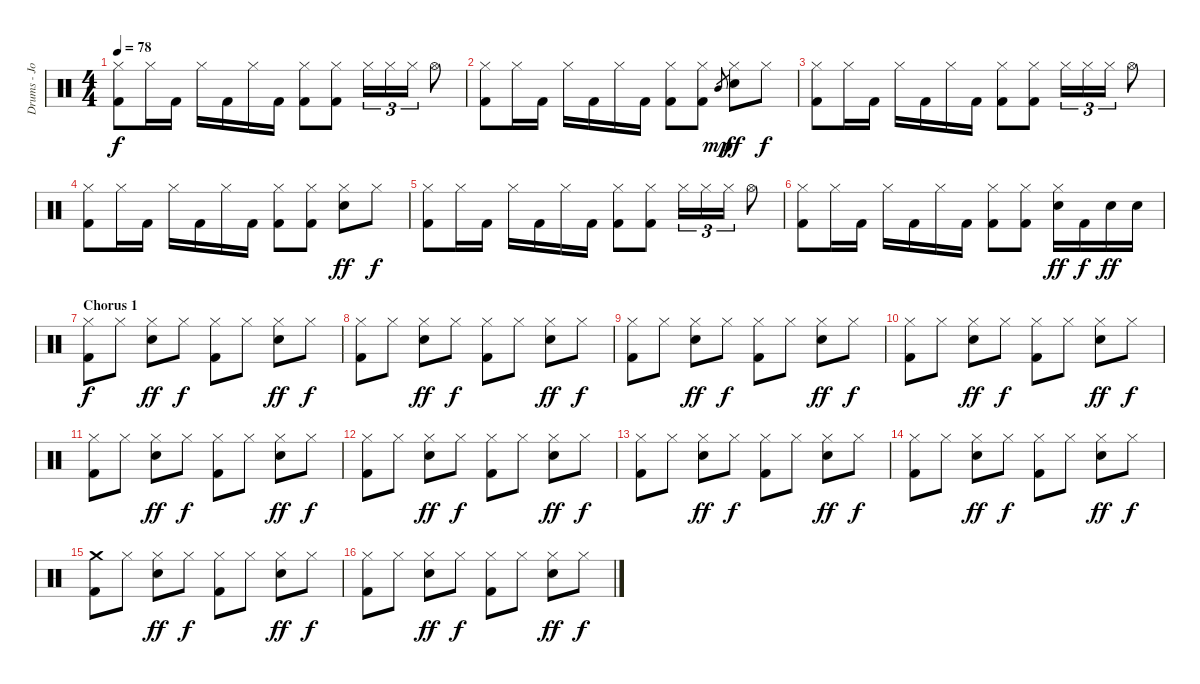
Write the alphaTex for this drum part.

\track ("Drums - Jorg Michael" "Drums - Jo") {instrument percussion}
\staff {score}
\articulation defaults
\ts (4 4)
\tempo 78
\clef neutral
\ks c
("Hi-Hat (closed)" "Kick (hit) 2").8{dy f} "Hi-Hat (closed)".16 "Kick (hit) 2".16 "Hi-Hat (closed)".16 "Kick (hit) 2".16 "Hi-Hat (closed)".16 "Kick (hit) 2".16 ("Hi-Hat (closed)" "Kick (hit) 2").8 ("Hi-Hat (closed)" "Kick (hit) 2").8 "Hi-Hat (closed)".16{tu (3 2)} "Hi-Hat (closed)".16{tu (3 2)} "Hi-Hat (closed)".16{tu (3 2)} "Hi-Hat (open)".8 |
("Hi-Hat (closed)" "Kick (hit) 2").8 "Hi-Hat (closed)".16 "Kick (hit) 2".16 "Hi-Hat (closed)".16 "Kick (hit) 2".16 "Hi-Hat (closed)".16 "Kick (hit) 2".16 ("Hi-Hat (closed)" "Kick (hit) 2").8 ("Hi-Hat (closed)" "Kick (hit) 2").8 "Mid Tom (hit)".8{gr dy mp} ("Hi-Hat (closed)" "Electric Snare (hit)").8{dy ff} "Hi-Hat (closed)".8{dy f} |
("Hi-Hat (closed)" "Kick (hit) 2").8 "Hi-Hat (closed)".16 "Kick (hit) 2".16 "Hi-Hat (closed)".16 "Kick (hit) 2".16 "Hi-Hat (closed)".16 "Kick (hit) 2".16 ("Hi-Hat (closed)" "Kick (hit) 2").8 ("Hi-Hat (closed)" "Kick (hit) 2").8 "Hi-Hat (closed)".16{tu (3 2)} "Hi-Hat (closed)".16{tu (3 2)} "Hi-Hat (closed)".16{tu (3 2)} "Hi-Hat (open)".8 |
("Hi-Hat (closed)" "Kick (hit) 2").8 "Hi-Hat (closed)".16 "Kick (hit) 2".16 "Hi-Hat (closed)".16 "Kick (hit) 2".16 "Hi-Hat (closed)".16 "Kick (hit) 2".16 ("Hi-Hat (closed)" "Kick (hit) 2").8 ("Hi-Hat (closed)" "Kick (hit) 2").8 ("Hi-Hat (closed)" "Electric Snare (hit)").8{dy ff} "Hi-Hat (closed)".8{dy f} |
("Hi-Hat (closed)" "Kick (hit) 2").8 "Hi-Hat (closed)".16 "Kick (hit) 2".16 "Hi-Hat (closed)".16 "Kick (hit) 2".16 "Hi-Hat (closed)".16 "Kick (hit) 2".16 ("Hi-Hat (closed)" "Kick (hit) 2").8 ("Hi-Hat (closed)" "Kick (hit) 2").8 "Hi-Hat (closed)".16{tu (3 2)} "Hi-Hat (closed)".16{tu (3 2)} "Hi-Hat (closed)".16{tu (3 2)} "Hi-Hat (open)".8 |
("Hi-Hat (closed)" "Kick (hit) 2").8 "Hi-Hat (closed)".16 "Kick (hit) 2".16 "Hi-Hat (closed)".16 "Kick (hit) 2".16 "Hi-Hat (closed)".16 "Kick (hit) 2".16 ("Hi-Hat (closed)" "Kick (hit) 2").8 ("Hi-Hat (closed)" "Kick (hit) 2").8 ("Hi-Hat (closed)" "Electric Snare (hit)").16{dy ff} "Kick (hit) 2".16{dy f} "Electric Snare (hit)".16{dy ff} "Electric Snare (hit)".16 |
\section ("" "Chorus 1")
("Hi-Hat (closed)" "Kick (hit) 2").8{dy f} "Hi-Hat (closed)".8 ("Hi-Hat (closed)" "Electric Snare (hit)").8{dy ff} "Hi-Hat (closed)".8{dy f} ("Hi-Hat (closed)" "Kick (hit) 2").8 "Hi-Hat (closed)".8 ("Hi-Hat (closed)" "Electric Snare (hit)").8{dy ff} "Hi-Hat (closed)".8{dy f} |
("Hi-Hat (closed)" "Kick (hit) 2").8 "Hi-Hat (closed)".8 ("Hi-Hat (closed)" "Electric Snare (hit)").8{dy ff} "Hi-Hat (closed)".8{dy f} ("Hi-Hat (closed)" "Kick (hit) 2").8 "Hi-Hat (closed)".8 ("Hi-Hat (closed)" "Electric Snare (hit)").8{dy ff} "Hi-Hat (closed)".8{dy f} |
("Hi-Hat (closed)" "Kick (hit) 2").8 "Hi-Hat (closed)".8 ("Hi-Hat (closed)" "Electric Snare (hit)").8{dy ff} "Hi-Hat (closed)".8{dy f} ("Hi-Hat (closed)" "Kick (hit) 2").8 "Hi-Hat (closed)".8 ("Hi-Hat (closed)" "Electric Snare (hit)").8{dy ff} "Hi-Hat (closed)".8{dy f} |
("Hi-Hat (closed)" "Kick (hit) 2").8 "Hi-Hat (closed)".8 ("Hi-Hat (closed)" "Electric Snare (hit)").8{dy ff} "Hi-Hat (closed)".8{dy f} ("Hi-Hat (closed)" "Kick (hit) 2").8 "Hi-Hat (closed)".8 ("Hi-Hat (closed)" "Electric Snare (hit)").8{dy ff} "Hi-Hat (closed)".8{dy f} |
("Hi-Hat (closed)" "Kick (hit) 2").8 "Hi-Hat (closed)".8 ("Hi-Hat (closed)" "Electric Snare (hit)").8{dy ff} "Hi-Hat (closed)".8{dy f} ("Hi-Hat (closed)" "Kick (hit) 2").8 "Hi-Hat (closed)".8 ("Hi-Hat (closed)" "Electric Snare (hit)").8{dy ff} "Hi-Hat (closed)".8{dy f} |
("Hi-Hat (closed)" "Kick (hit) 2").8 "Hi-Hat (closed)".8 ("Hi-Hat (closed)" "Electric Snare (hit)").8{dy ff} "Hi-Hat (closed)".8{dy f} ("Hi-Hat (closed)" "Kick (hit) 2").8 "Hi-Hat (closed)".8 ("Hi-Hat (closed)" "Electric Snare (hit)").8{dy ff} "Hi-Hat (closed)".8{dy f} |
("Hi-Hat (closed)" "Kick (hit) 2").8 "Hi-Hat (closed)".8 ("Hi-Hat (closed)" "Electric Snare (hit)").8{dy ff} "Hi-Hat (closed)".8{dy f} ("Hi-Hat (closed)" "Kick (hit) 2").8 "Hi-Hat (closed)".8 ("Hi-Hat (closed)" "Electric Snare (hit)").8{dy ff} "Hi-Hat (closed)".8{dy f} |
("Hi-Hat (closed)" "Kick (hit) 2").8 "Hi-Hat (closed)".8 ("Hi-Hat (closed)" "Electric Snare (hit)").8{dy ff} "Hi-Hat (closed)".8{dy f} ("Hi-Hat (closed)" "Kick (hit) 2").8 "Hi-Hat (closed)".8 ("Hi-Hat (closed)" "Electric Snare (hit)").8{dy ff} "Hi-Hat (closed)".8{dy f} |
\section ("" "")
("Crash medium (hit)" "Kick (hit) 2").8 "Hi-Hat (closed)".8 ("Hi-Hat (closed)" "Electric Snare (hit)").8{dy ff} "Hi-Hat (closed)".8{dy f} ("Hi-Hat (closed)" "Kick (hit) 2").8 "Hi-Hat (closed)".8 ("Hi-Hat (closed)" "Electric Snare (hit)").8{dy ff} "Hi-Hat (closed)".8{dy f} |
("Hi-Hat (closed)" "Kick (hit) 2").8 "Hi-Hat (closed)".8 ("Hi-Hat (closed)" "Electric Snare (hit)").8{dy ff} "Hi-Hat (closed)".8{dy f} ("Hi-Hat (closed)" "Kick (hit) 2").8 "Hi-Hat (closed)".8 ("Hi-Hat (closed)" "Electric Snare (hit)").8{dy ff} "Hi-Hat (closed)".8{dy f}
